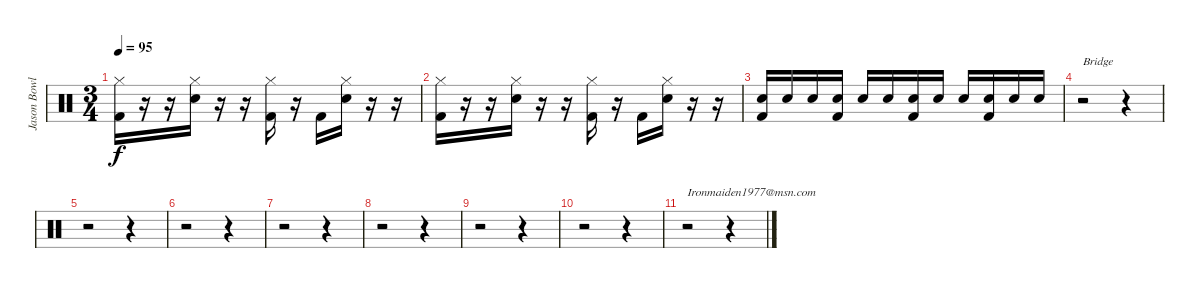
\track ("Jason Bowld" "Jason Bowl") {instrument percussion}
\staff {score}
\articulation defaults
\ts (3 4)
\tempo 95
\clef neutral
\ks c
("Hi-Hat (closed)" "Kick (hit) 2").16{dy f} r.16 r.16 ("Hi-Hat (closed)" "Snare (hit) 2").16 r.16 r.16 ("Hi-Hat (closed)" "Kick (hit) 2").16 r.16 "Kick (hit) 2".16 ("Hi-Hat (closed)" "Snare (hit) 2").16 r.16 r.16 |
("Hi-Hat (closed)" "Kick (hit) 2").16 r.16 r.16 ("Hi-Hat (closed)" "Snare (hit) 2").16 r.16 r.16 ("Hi-Hat (closed)" "Kick (hit) 2").16 r.16 "Kick (hit) 2".16 ("Hi-Hat (closed)" "Snare (hit) 2").16 r.16 r.16 |
("Kick (hit) 2" "Snare (hit) 2").16 "Snare (hit) 2".16 "Snare (hit) 2".16 ("Kick (hit) 2" "Snare (hit) 2").16 "Snare (hit) 2".16 "Snare (hit) 2".16 ("Kick (hit) 2" "Snare (hit) 2").16 "Snare (hit) 2".16 "Snare (hit) 2".16 ("Kick (hit) 2" "Snare (hit) 2").16 "Snare (hit) 2".16 "Snare (hit) 2".16 |
r.2{txt "Bridge"} r.4 |
r.2 r.4 |
r.2 r.4 |
r.2 r.4 |
r.2 r.4 |
r.2 r.4 |
r.2 r.4 |
r.2{txt "Ironmaiden1977@msn.com"} r.4
